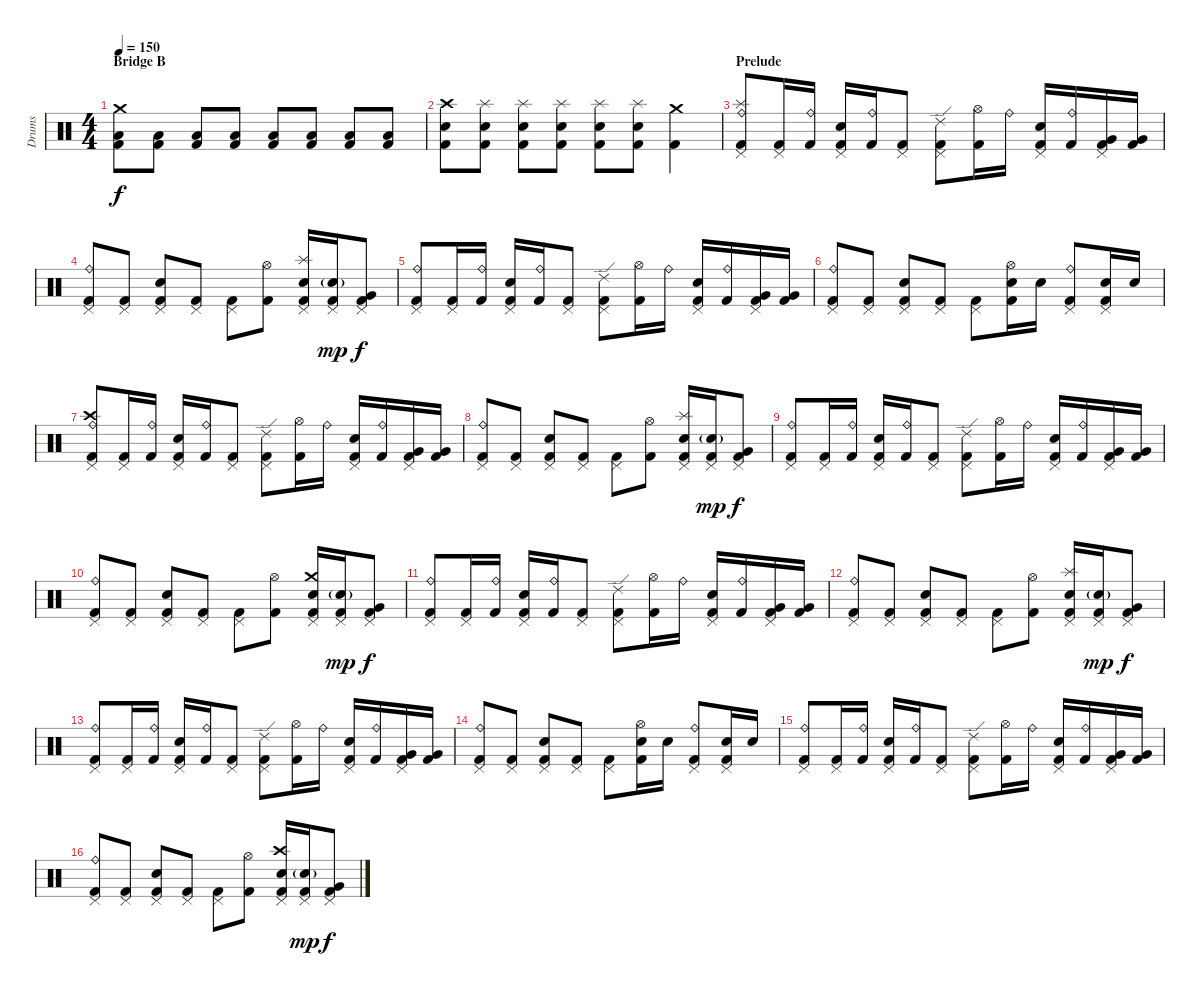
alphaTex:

\track ("Drums" "Drums") {instrument percussion}
\staff {score}
\articulation defaults
\ts (4 4)
\section ("" "Bridge B")
\tempo 150
\clef neutral
\ks c
("Kick (hit) 2" "Low Tom (hit)" "Crash medium (hit)").8{dy f} ("Kick (hit) 2" "Low Tom (hit)").8 ("Kick (hit) 2" "Low Tom (hit)").8 ("Kick (hit) 2" "Low Tom (hit)").8 ("Kick (hit) 2" "Low Tom (hit)").8 ("Kick (hit) 2" "Low Tom (hit)").8 ("Kick (hit) 2" "Low Tom (hit)").8 ("Kick (hit) 2" "Low Tom (hit)").8 |
("Kick (hit) 2" "Snare (hit) 2" "Crash high (hit)").8 ("Kick (hit) 2" "Snare (hit) 2" "Splash (hit)").8 ("Kick (hit) 2" "Snare (hit) 2" "Splash (hit)").8 ("Kick (hit) 2" "Snare (hit) 2" "Splash (hit)").8 ("Kick (hit) 2" "Snare (hit) 2" "Splash (hit)").8 ("Kick (hit) 2" "Snare (hit) 2" "Splash (hit)").8 ("Kick (hit) 2" "Crash medium (hit)").4 |
\section ("" "Prelude")
("Kick (hit) 2" "Splash (hit)" "Ride (bell)" "Pedal Hi-Hat (hit)").8 ("Kick (hit) 2" "Pedal Hi-Hat (hit)").16 ("Kick (hit) 2" "Ride (bell)").16 ("Kick (hit) 2" "Snare (hit) 2" "Pedal Hi-Hat (hit)").16 ("Kick (hit) 2" "Ride (bell)").16 ("Kick (hit) 2" "Pedal Hi-Hat (hit)").8 ("Kick (hit) 2" "Ride (edge) 2" "Pedal Hi-Hat (hit)").8 ("Kick (hit) 2" "Hi-Hat (open)").16 "Ride (bell)".16 ("Kick (hit) 2" "Snare (hit) 2" "Pedal Hi-Hat (hit)").16 ("Kick (hit) 2" "Ride (bell)").16 ("Kick (hit) 2" "Very Low Tom (hit)" "Pedal Hi-Hat (hit)").16 ("Kick (hit) 2" "Very Low Tom (hit)").16 |
("Kick (hit) 2" "Ride (bell)" "Pedal Hi-Hat (hit)").8 ("Kick (hit) 2" "Pedal Hi-Hat (hit)").8 ("Kick (hit) 2" "Snare (hit) 2" "Pedal Hi-Hat (hit)").8 ("Kick (hit) 2" "Pedal Hi-Hat (hit)").8 ("Kick (hit) 2" "Pedal Hi-Hat (hit)").8 ("Kick (hit) 2" "Hi-Hat (open)").8 ("Kick (hit) 2" "Splash (hit)" "Snare (hit) 2" "Pedal Hi-Hat (hit)").16 ("Kick (hit) 2" "Snare (hit) 2"{g} "Pedal Hi-Hat (hit)").16{dy mp} ("Kick (hit) 2" "Very Low Tom (hit)" "Pedal Hi-Hat (hit)").8{dy f} |
("Kick (hit) 2" "Ride (bell)" "Pedal Hi-Hat (hit)").8 ("Kick (hit) 2" "Pedal Hi-Hat (hit)").16 ("Kick (hit) 2" "Ride (bell)").16 ("Kick (hit) 2" "Snare (hit) 2" "Pedal Hi-Hat (hit)").16 ("Kick (hit) 2" "Ride (bell)").16 ("Kick (hit) 2" "Pedal Hi-Hat (hit)").8 ("Kick (hit) 2" "Ride (edge) 2" "Pedal Hi-Hat (hit)").8 ("Kick (hit) 2" "Hi-Hat (open)").16 "Ride (bell)".16 ("Kick (hit) 2" "Snare (hit) 2" "Pedal Hi-Hat (hit)").16 ("Kick (hit) 2" "Ride (bell)").16 ("Kick (hit) 2" "Very Low Tom (hit)" "Pedal Hi-Hat (hit)").16 ("Kick (hit) 2" "Very Low Tom (hit)").16 |
("Kick (hit) 2" "Ride (bell)" "Pedal Hi-Hat (hit)").8 ("Kick (hit) 2" "Pedal Hi-Hat (hit)").8 ("Kick (hit) 2" "Snare (hit) 2" "Pedal Hi-Hat (hit)").8 ("Kick (hit) 2" "Pedal Hi-Hat (hit)").8 ("Kick (hit) 2" "Pedal Hi-Hat (hit)").8 ("Kick (hit) 2" "Snare (hit) 2" "Hi-Hat (open)").16 "Snare (hit) 2".16 ("Kick (hit) 2" "Ride (bell)" "Pedal Hi-Hat (hit)").8 ("Kick (hit) 2" "Snare (hit) 2" "Pedal Hi-Hat (hit)").16 "Snare (hit) 2".16 |
("Kick (hit) 2" "Crash high (hit)" "Ride (bell)" "Pedal Hi-Hat (hit)").8 ("Kick (hit) 2" "Pedal Hi-Hat (hit)").16 ("Kick (hit) 2" "Ride (bell)").16 ("Kick (hit) 2" "Snare (hit) 2" "Pedal Hi-Hat (hit)").16 ("Kick (hit) 2" "Ride (bell)").16 ("Kick (hit) 2" "Pedal Hi-Hat (hit)").8 ("Kick (hit) 2" "Ride (edge) 2" "Pedal Hi-Hat (hit)").8 ("Kick (hit) 2" "Hi-Hat (open)").16 "Ride (bell)".16 ("Kick (hit) 2" "Snare (hit) 2" "Pedal Hi-Hat (hit)").16 ("Kick (hit) 2" "Ride (bell)").16 ("Kick (hit) 2" "Very Low Tom (hit)" "Pedal Hi-Hat (hit)").16 ("Kick (hit) 2" "Very Low Tom (hit)").16 |
("Kick (hit) 2" "Ride (bell)" "Pedal Hi-Hat (hit)").8 ("Kick (hit) 2" "Pedal Hi-Hat (hit)").8 ("Kick (hit) 2" "Snare (hit) 2" "Pedal Hi-Hat (hit)").8 ("Kick (hit) 2" "Pedal Hi-Hat (hit)").8 ("Kick (hit) 2" "Pedal Hi-Hat (hit)").8 ("Kick (hit) 2" "Hi-Hat (open)").8 ("Kick (hit) 2" "Splash (hit)" "Snare (hit) 2" "Pedal Hi-Hat (hit)").16 ("Kick (hit) 2" "Snare (hit) 2"{g} "Pedal Hi-Hat (hit)").16{dy mp} ("Kick (hit) 2" "Very Low Tom (hit)" "Pedal Hi-Hat (hit)").8{dy f} |
("Kick (hit) 2" "Ride (bell)" "Pedal Hi-Hat (hit)").8 ("Kick (hit) 2" "Pedal Hi-Hat (hit)").16 ("Kick (hit) 2" "Ride (bell)").16 ("Kick (hit) 2" "Snare (hit) 2" "Pedal Hi-Hat (hit)").16 ("Kick (hit) 2" "Ride (bell)").16 ("Kick (hit) 2" "Pedal Hi-Hat (hit)").8 ("Kick (hit) 2" "Ride (edge) 2" "Pedal Hi-Hat (hit)").8 ("Kick (hit) 2" "Hi-Hat (open)").16 "Ride (bell)".16 ("Kick (hit) 2" "Snare (hit) 2" "Pedal Hi-Hat (hit)").16 ("Kick (hit) 2" "Ride (bell)").16 ("Kick (hit) 2" "Very Low Tom (hit)" "Pedal Hi-Hat (hit)").16 ("Kick (hit) 2" "Very Low Tom (hit)").16 |
("Kick (hit) 2" "Ride (bell)" "Pedal Hi-Hat (hit)").8 ("Kick (hit) 2" "Pedal Hi-Hat (hit)").8 ("Kick (hit) 2" "Snare (hit) 2" "Pedal Hi-Hat (hit)").8 ("Kick (hit) 2" "Pedal Hi-Hat (hit)").8 ("Kick (hit) 2" "Pedal Hi-Hat (hit)").8 ("Kick (hit) 2" "Hi-Hat (open)").8 ("Kick (hit) 2" "Crash medium (hit)" "Snare (hit) 2" "Pedal Hi-Hat (hit)").16 ("Kick (hit) 2" "Snare (hit) 2"{g} "Pedal Hi-Hat (hit)").16{dy mp} ("Kick (hit) 2" "Very Low Tom (hit)" "Pedal Hi-Hat (hit)").8{dy f} |
("Kick (hit) 2" "Ride (bell)" "Pedal Hi-Hat (hit)").8 ("Kick (hit) 2" "Pedal Hi-Hat (hit)").16 ("Kick (hit) 2" "Ride (bell)").16 ("Kick (hit) 2" "Snare (hit) 2" "Pedal Hi-Hat (hit)").16 ("Kick (hit) 2" "Ride (bell)").16 ("Kick (hit) 2" "Pedal Hi-Hat (hit)").8 ("Kick (hit) 2" "Ride (edge) 2" "Pedal Hi-Hat (hit)").8 ("Kick (hit) 2" "Hi-Hat (open)").16 "Ride (bell)".16 ("Kick (hit) 2" "Snare (hit) 2" "Pedal Hi-Hat (hit)").16 ("Kick (hit) 2" "Ride (bell)").16 ("Kick (hit) 2" "Very Low Tom (hit)" "Pedal Hi-Hat (hit)").16 ("Kick (hit) 2" "Very Low Tom (hit)").16 |
("Kick (hit) 2" "Ride (bell)" "Pedal Hi-Hat (hit)").8 ("Kick (hit) 2" "Pedal Hi-Hat (hit)").8 ("Kick (hit) 2" "Snare (hit) 2" "Pedal Hi-Hat (hit)").8 ("Kick (hit) 2" "Pedal Hi-Hat (hit)").8 ("Kick (hit) 2" "Pedal Hi-Hat (hit)").8 ("Kick (hit) 2" "Hi-Hat (open)").8 ("Kick (hit) 2" "Splash (hit)" "Snare (hit) 2" "Pedal Hi-Hat (hit)").16 ("Kick (hit) 2" "Snare (hit) 2"{g} "Pedal Hi-Hat (hit)").16{dy mp} ("Kick (hit) 2" "Very Low Tom (hit)" "Pedal Hi-Hat (hit)").8{dy f} |
("Kick (hit) 2" "Ride (bell)" "Pedal Hi-Hat (hit)").8 ("Kick (hit) 2" "Pedal Hi-Hat (hit)").16 ("Kick (hit) 2" "Ride (bell)").16 ("Kick (hit) 2" "Snare (hit) 2" "Pedal Hi-Hat (hit)").16 ("Kick (hit) 2" "Ride (bell)").16 ("Kick (hit) 2" "Pedal Hi-Hat (hit)").8 ("Kick (hit) 2" "Ride (edge) 2" "Pedal Hi-Hat (hit)").8 ("Kick (hit) 2" "Hi-Hat (open)").16 "Ride (bell)".16 ("Kick (hit) 2" "Snare (hit) 2" "Pedal Hi-Hat (hit)").16 ("Kick (hit) 2" "Ride (bell)").16 ("Kick (hit) 2" "Very Low Tom (hit)" "Pedal Hi-Hat (hit)").16 ("Kick (hit) 2" "Very Low Tom (hit)").16 |
("Kick (hit) 2" "Ride (bell)" "Pedal Hi-Hat (hit)").8 ("Kick (hit) 2" "Pedal Hi-Hat (hit)").8 ("Kick (hit) 2" "Snare (hit) 2" "Pedal Hi-Hat (hit)").8 ("Kick (hit) 2" "Pedal Hi-Hat (hit)").8 ("Kick (hit) 2" "Pedal Hi-Hat (hit)").8 ("Kick (hit) 2" "Snare (hit) 2" "Hi-Hat (open)").16 "Snare (hit) 2".16 ("Kick (hit) 2" "Ride (bell)" "Pedal Hi-Hat (hit)").8 ("Kick (hit) 2" "Snare (hit) 2" "Pedal Hi-Hat (hit)").16 "Snare (hit) 2".16 |
("Kick (hit) 2" "Ride (bell)" "Pedal Hi-Hat (hit)").8 ("Kick (hit) 2" "Pedal Hi-Hat (hit)").16 ("Kick (hit) 2" "Ride (bell)").16 ("Kick (hit) 2" "Snare (hit) 2" "Pedal Hi-Hat (hit)").16 ("Kick (hit) 2" "Ride (bell)").16 ("Kick (hit) 2" "Pedal Hi-Hat (hit)").8 ("Kick (hit) 2" "Ride (edge) 2" "Pedal Hi-Hat (hit)").8 ("Kick (hit) 2" "Hi-Hat (open)").16 "Ride (bell)".16 ("Kick (hit) 2" "Snare (hit) 2" "Pedal Hi-Hat (hit)").16 ("Kick (hit) 2" "Ride (bell)").16 ("Kick (hit) 2" "Very Low Tom (hit)" "Pedal Hi-Hat (hit)").16 ("Kick (hit) 2" "Very Low Tom (hit)").16 |
("Kick (hit) 2" "Ride (bell)" "Pedal Hi-Hat (hit)").8 ("Kick (hit) 2" "Pedal Hi-Hat (hit)").8 ("Kick (hit) 2" "Snare (hit) 2" "Pedal Hi-Hat (hit)").8 ("Kick (hit) 2" "Pedal Hi-Hat (hit)").8 ("Kick (hit) 2" "Pedal Hi-Hat (hit)").8 ("Kick (hit) 2" "Hi-Hat (open)").8 ("Kick (hit) 2" "Crash high (hit)" "Snare (hit) 2" "Pedal Hi-Hat (hit)").16 ("Kick (hit) 2" "Snare (hit) 2"{g} "Pedal Hi-Hat (hit)").16{dy mp} ("Kick (hit) 2" "Very Low Tom (hit)" "Pedal Hi-Hat (hit)").8{dy f}
